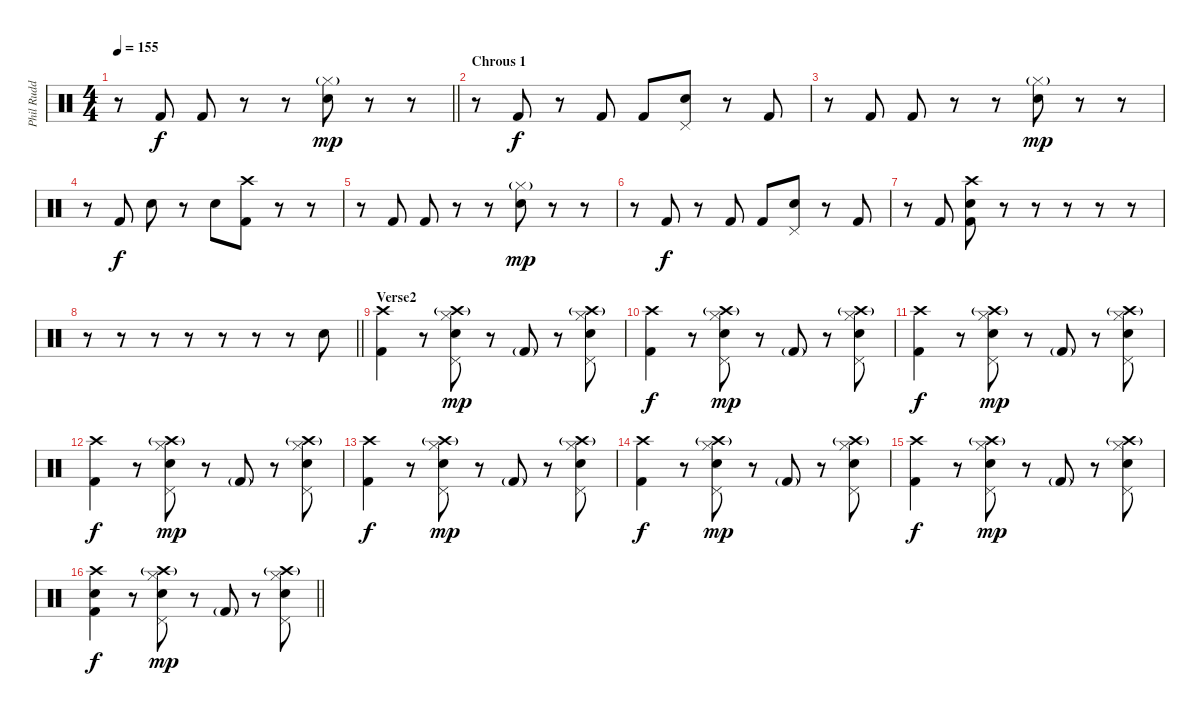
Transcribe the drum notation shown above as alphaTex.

\track ("Phil Rudd" "Phil Rudd") {instrument percussion}
\staff {score}
\articulation defaults
\ts (4 4)
\tempo 155
\clef neutral
\barLineRight lightlight
\ks c
r.8{dy f} "Kick (hit) 2".8 "Kick (hit) 2".8 r.8 r.8 ("Hi-Hat (closed)"{g} "Snare (hit) 2").8{dy mp} r.8 r.8 |
\section ("" "Chrous 1")
r.8 "Kick (hit) 2".8{dy f} r.8 "Kick (hit) 2".8 "Kick (hit) 2".8 ("Pedal Hi-Hat (hit)" "Snare (hit) 2").8 r.8 "Kick (hit) 2".8 |
r.8 "Kick (hit) 2".8 "Kick (hit) 2".8 r.8 r.8 ("Hi-Hat (closed)"{g} "Snare (hit) 2").8{dy mp} r.8 r.8 |
r.8 "Kick (hit) 2".8{dy f} "Snare (hit) 2".8 r.8 "Snare (hit) 2".8 ("Kick (hit) 2" "Crash high (hit)").8 r.8 r.8 |
r.8 "Kick (hit) 2".8 "Kick (hit) 2".8 r.8 r.8 ("Hi-Hat (closed)"{g} "Snare (hit) 2").8{dy mp} r.8 r.8 |
r.8 "Kick (hit) 2".8{dy f} r.8 "Kick (hit) 2".8 "Kick (hit) 2".8 ("Pedal Hi-Hat (hit)" "Snare (hit) 2").8 r.8 "Kick (hit) 2".8 |
r.8 "Kick (hit) 2".8 ("Snare (hit) 2" "Crash high (hit)" "Kick (hit) 2").8 r.8 r.8 r.8 r.8 r.8 |
\barLineRight lightlight
r.8 r.8 r.8 r.8 r.8 r.8 r.8 "Snare (hit) 2".8 |
\section ("" "Verse2")
("Kick (hit) 2" "Crash high (hit)").4 r.8 ("Snare (hit) 2" "Pedal Hi-Hat (hit)" "Hi-Hat (closed)" "Crash high (hit)"{g}).8{dy mp} r.8 "Kick (hit) 2"{g}.8 r.8 ("Snare (hit) 2" "Pedal Hi-Hat (hit)" "Hi-Hat (closed)" "Crash high (hit)"{g}).8 |
("Crash high (hit)" "Kick (hit) 2").4{dy f} r.8 ("Snare (hit) 2" "Pedal Hi-Hat (hit)" "Hi-Hat (closed)" "Crash high (hit)"{g}).8{dy mp} r.8 "Kick (hit) 2"{g}.8 r.8 ("Snare (hit) 2" "Pedal Hi-Hat (hit)" "Hi-Hat (closed)" "Crash high (hit)"{g}).8 |
("Kick (hit) 2" "Crash high (hit)").4{dy f} r.8 ("Snare (hit) 2" "Pedal Hi-Hat (hit)" "Hi-Hat (closed)" "Crash high (hit)"{g}).8{dy mp} r.8 "Kick (hit) 2"{g}.8 r.8 ("Snare (hit) 2" "Pedal Hi-Hat (hit)" "Hi-Hat (closed)" "Crash high (hit)"{g}).8 |
("Crash high (hit)" "Kick (hit) 2").4{dy f} r.8 ("Snare (hit) 2" "Pedal Hi-Hat (hit)" "Hi-Hat (closed)" "Crash high (hit)"{g}).8{dy mp} r.8 "Kick (hit) 2"{g}.8 r.8 ("Snare (hit) 2" "Pedal Hi-Hat (hit)" "Hi-Hat (closed)" "Crash high (hit)"{g}).8 |
("Kick (hit) 2" "Crash high (hit)").4{dy f} r.8 ("Snare (hit) 2" "Pedal Hi-Hat (hit)" "Hi-Hat (closed)" "Crash high (hit)"{g}).8{dy mp} r.8 "Kick (hit) 2"{g}.8 r.8 ("Snare (hit) 2" "Pedal Hi-Hat (hit)" "Hi-Hat (closed)" "Crash high (hit)"{g}).8 |
("Crash high (hit)" "Kick (hit) 2").4{dy f} r.8 ("Snare (hit) 2" "Pedal Hi-Hat (hit)" "Hi-Hat (closed)" "Crash high (hit)"{g}).8{dy mp} r.8 "Kick (hit) 2"{g}.8 r.8 ("Snare (hit) 2" "Pedal Hi-Hat (hit)" "Hi-Hat (closed)" "Crash high (hit)"{g}).8 |
("Kick (hit) 2" "Crash high (hit)").4{dy f} r.8 ("Snare (hit) 2" "Pedal Hi-Hat (hit)" "Hi-Hat (closed)" "Crash high (hit)"{g}).8{dy mp} r.8 "Kick (hit) 2"{g}.8 r.8 ("Snare (hit) 2" "Pedal Hi-Hat (hit)" "Hi-Hat (closed)" "Crash high (hit)"{g}).8 |
\barLineRight lightlight
("Kick (hit) 2" "Snare (hit) 2" "Crash high (hit)").4{dy f} r.8 ("Snare (hit) 2" "Pedal Hi-Hat (hit)" "Hi-Hat (closed)" "Crash high (hit)"{g}).8{dy mp} r.8 "Kick (hit) 2"{g}.8 r.8 ("Snare (hit) 2" "Pedal Hi-Hat (hit)" "Hi-Hat (closed)" "Crash high (hit)"{g}).8
